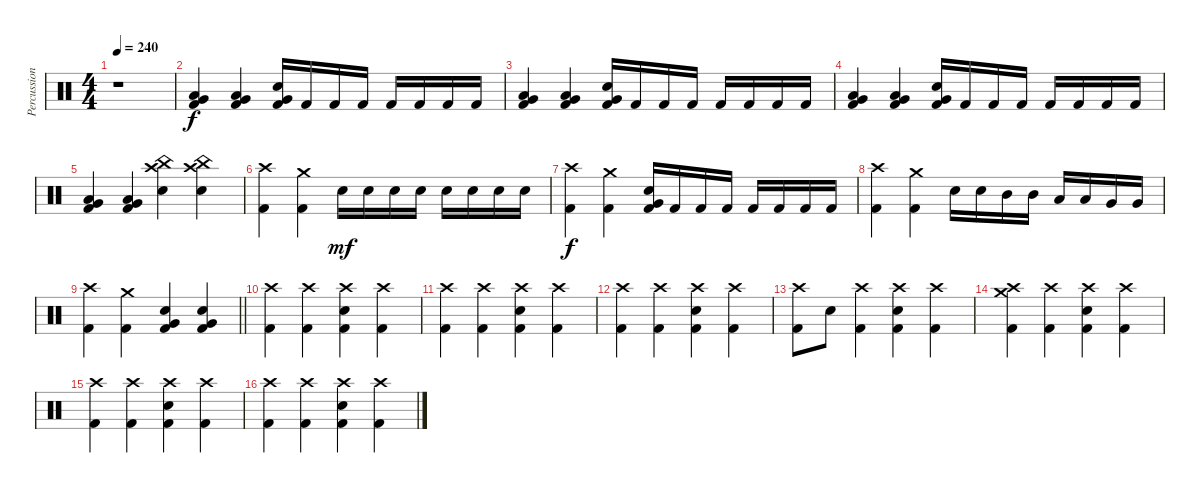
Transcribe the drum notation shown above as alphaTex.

\track ("Percussion" "Percussion") {instrument percussion}
\staff {score}
\articulation defaults
\ts (4 4)
\tempo 240
\clef neutral
\ks c
r.1{dy f} |
("Very Low Tom (hit)" "Low Floor Tom (hit)" "Kick (hit) 2").4 ("Very Low Tom (hit)" "Low Floor Tom (hit)" "Kick (hit) 2").4 ("Snare (hit) 2" "Very Low Tom (hit)" "Kick (hit) 2").16 "Kick (hit) 2".16 "Kick (hit) 2".16 "Kick (hit) 2".16 "Kick (hit) 2".16 "Kick (hit) 2".16 "Kick (hit) 2".16 "Kick (hit) 2".16 |
("Very Low Tom (hit)" "Low Floor Tom (hit)" "Kick (hit) 2").4 ("Very Low Tom (hit)" "Low Floor Tom (hit)" "Kick (hit) 2").4 ("Snare (hit) 2" "Very Low Tom (hit)" "Kick (hit) 2").16 "Kick (hit) 2".16 "Kick (hit) 2".16 "Kick (hit) 2".16 "Kick (hit) 2".16 "Kick (hit) 2".16 "Kick (hit) 2".16 "Kick (hit) 2".16 |
("Very Low Tom (hit)" "Low Floor Tom (hit)" "Kick (hit) 2").4 ("Very Low Tom (hit)" "Low Floor Tom (hit)" "Kick (hit) 2").4 ("Snare (hit) 2" "Very Low Tom (hit)" "Kick (hit) 2").16 "Kick (hit) 2".16 "Kick (hit) 2".16 "Kick (hit) 2".16 "Kick (hit) 2".16 "Kick (hit) 2".16 "Kick (hit) 2".16 "Kick (hit) 2".16 |
("Very Low Tom (hit)" "Low Floor Tom (hit)" "Kick (hit) 2").4 ("Very Low Tom (hit)" "Low Floor Tom (hit)" "Kick (hit) 2").4 ("China (hit)" "Crash high (hit)" "Snare (hit) 2").4 ("China (hit)" "Crash high (hit)" "Snare (hit) 2").4 |
("Crash high (hit)" "Kick (hit) 2").4 ("Crash medium (hit)" "Kick (hit) 2").4 "Snare (hit) 2".16{dy mf} "Snare (hit) 2".16 "Snare (hit) 2".16 "Snare (hit) 2".16 "Snare (hit) 2".16 "Snare (hit) 2".16 "Snare (hit) 2".16 "Snare (hit) 2".16 |
("Crash high (hit)" "Kick (hit) 2").4{dy f} ("Crash medium (hit)" "Kick (hit) 2").4 ("Snare (hit) 2" "Very Low Tom (hit)" "Kick (hit) 2").16 "Kick (hit) 2".16 "Kick (hit) 2".16 "Kick (hit) 2".16 "Kick (hit) 2".16 "Kick (hit) 2".16 "Kick (hit) 2".16 "Kick (hit) 2".16 |
("Crash high (hit)" "Kick (hit) 2").4 ("Crash medium (hit)" "Kick (hit) 2").4 "Snare (hit) 2".16 "Snare (hit) 2".16 "Mid Tom (hit)".16 "Mid Tom (hit)".16 "Low Tom (hit)".16 "Low Tom (hit)".16 "Very Low Tom (hit)".16 "Very Low Tom (hit)".16 |
\barLineRight lightlight
("Crash high (hit)" "Kick (hit) 2").4 ("Crash medium (hit)" "Kick (hit) 2").4 ("Snare (hit) 2" "Very Low Tom (hit)" "Kick (hit) 2").4 ("Snare (hit) 2" "Very Low Tom (hit)" "Kick (hit) 2").4 |
("Crash high (hit)" "Kick (hit) 2").4 ("Crash high (hit)" "Kick (hit) 2").4 ("Crash high (hit)" "Snare (hit) 2" "Kick (hit) 2").4 ("Crash high (hit)" "Kick (hit) 2").4 |
("Crash high (hit)" "Kick (hit) 2").4 ("Crash high (hit)" "Kick (hit) 2").4 ("Crash high (hit)" "Snare (hit) 2" "Kick (hit) 2").4 ("Crash high (hit)" "Kick (hit) 2").4 |
("Crash high (hit)" "Kick (hit) 2").4 ("Crash high (hit)" "Kick (hit) 2").4 ("Crash high (hit)" "Snare (hit) 2" "Kick (hit) 2").4 ("Crash high (hit)" "Kick (hit) 2").4 |
("Crash high (hit)" "Kick (hit) 2").8 "Snare (hit) 2".8 ("Crash high (hit)" "Kick (hit) 2").4 ("Crash high (hit)" "Snare (hit) 2" "Kick (hit) 2").4 ("Crash high (hit)" "Kick (hit) 2").4 |
("Crash high (hit)" "Crash medium (hit)" "Kick (hit) 2").4 ("Crash high (hit)" "Kick (hit) 2").4 ("Crash high (hit)" "Snare (hit) 2" "Kick (hit) 2").4 ("Crash high (hit)" "Kick (hit) 2").4 |
("Crash high (hit)" "Kick (hit) 2").4 ("Crash high (hit)" "Kick (hit) 2").4 ("Crash high (hit)" "Snare (hit) 2" "Kick (hit) 2").4 ("Crash high (hit)" "Kick (hit) 2").4 |
("Crash high (hit)" "Kick (hit) 2").4 ("Crash high (hit)" "Kick (hit) 2").4 ("Crash high (hit)" "Snare (hit) 2" "Kick (hit) 2").4 ("Crash high (hit)" "Kick (hit) 2").4
